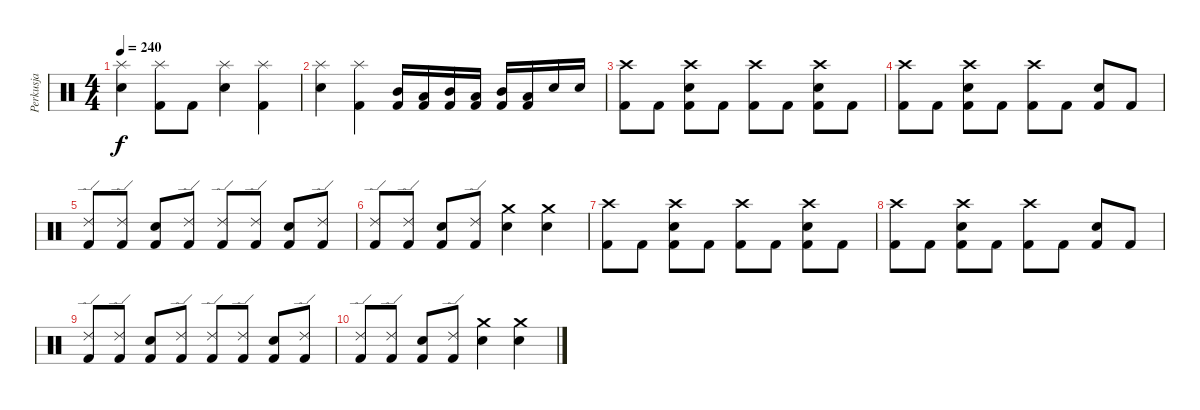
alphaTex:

\track ("Perkusja" "Perkusja") {instrument percussion}
\staff {score}
\articulation defaults
\ts (4 4)
\tempo 240
\clef neutral
\ks c
("Splash (hit)" "Snare (hit) 2").4{dy f} ("Splash (hit)" "Kick (hit) 2").8 "Kick (hit) 2".8 ("Splash (hit)" "Snare (hit) 2").4 ("Splash (hit)" "Kick (hit) 2").4 |
("Splash (hit)" "Snare (hit) 2").4 ("Splash (hit)" "Kick (hit) 2").4 ("Mid Tom (hit)" "Kick (hit) 2").16 ("Low Tom (hit)" "Kick (hit) 2").16 ("Mid Tom (hit)" "Kick (hit) 2").16 ("Low Tom (hit)" "Kick (hit) 2").16 ("Mid Tom (hit)" "Kick (hit) 2").16 ("Low Tom (hit)" "Kick (hit) 2").16 "Snare (hit) 2".16 "Snare (hit) 2".16 |
("Crash high (hit)" "Kick (hit) 2").8 "Kick (hit) 2".8 ("Crash high (hit)" "Snare (hit) 2" "Kick (hit) 2").8 "Kick (hit) 2".8 ("Crash high (hit)" "Kick (hit) 2").8 "Kick (hit) 2".8 ("Crash high (hit)" "Snare (hit) 2" "Kick (hit) 2").8 "Kick (hit) 2".8 |
("Crash high (hit)" "Kick (hit) 2").8 "Kick (hit) 2".8 ("Crash high (hit)" "Snare (hit) 2" "Kick (hit) 2").8 "Kick (hit) 2".8 ("Crash high (hit)" "Kick (hit) 2").8 "Kick (hit) 2".8 ("Snare (hit) 2" "Kick (hit) 2").8 "Kick (hit) 2".8 |
("Ride (edge) 2" "Kick (hit) 2").8 ("Ride (edge) 2" "Kick (hit) 2").8 ("Snare (hit) 2" "Kick (hit) 2").8 ("Ride (edge) 2" "Kick (hit) 2").8 ("Ride (edge) 2" "Kick (hit) 2").8 ("Ride (edge) 2" "Kick (hit) 2").8 ("Snare (hit) 2" "Kick (hit) 2").8 ("Ride (edge) 2" "Kick (hit) 2").8 |
("Ride (edge) 2" "Kick (hit) 2").8 ("Ride (edge) 2" "Kick (hit) 2").8 ("Snare (hit) 2" "Kick (hit) 2").8 ("Ride (edge) 2" "Kick (hit) 2").8 ("Crash medium (hit)" "Snare (hit) 2").4 ("Crash medium (hit)" "Snare (hit) 2").4 |
("Crash high (hit)" "Kick (hit) 2").8 "Kick (hit) 2".8 ("Crash high (hit)" "Snare (hit) 2" "Kick (hit) 2").8 "Kick (hit) 2".8 ("Crash high (hit)" "Kick (hit) 2").8 "Kick (hit) 2".8 ("Crash high (hit)" "Snare (hit) 2" "Kick (hit) 2").8 "Kick (hit) 2".8 |
("Crash high (hit)" "Kick (hit) 2").8 "Kick (hit) 2".8 ("Crash high (hit)" "Snare (hit) 2" "Kick (hit) 2").8 "Kick (hit) 2".8 ("Crash high (hit)" "Kick (hit) 2").8 "Kick (hit) 2".8 ("Snare (hit) 2" "Kick (hit) 2").8 "Kick (hit) 2".8 |
("Ride (edge) 2" "Kick (hit) 2").8 ("Ride (edge) 2" "Kick (hit) 2").8 ("Snare (hit) 2" "Kick (hit) 2").8 ("Ride (edge) 2" "Kick (hit) 2").8 ("Ride (edge) 2" "Kick (hit) 2").8 ("Ride (edge) 2" "Kick (hit) 2").8 ("Snare (hit) 2" "Kick (hit) 2").8 ("Ride (edge) 2" "Kick (hit) 2").8 |
("Ride (edge) 2" "Kick (hit) 2").8 ("Ride (edge) 2" "Kick (hit) 2").8 ("Snare (hit) 2" "Kick (hit) 2").8 ("Ride (edge) 2" "Kick (hit) 2").8 ("Crash medium (hit)" "Snare (hit) 2").4 ("Crash medium (hit)" "Snare (hit) 2").4
